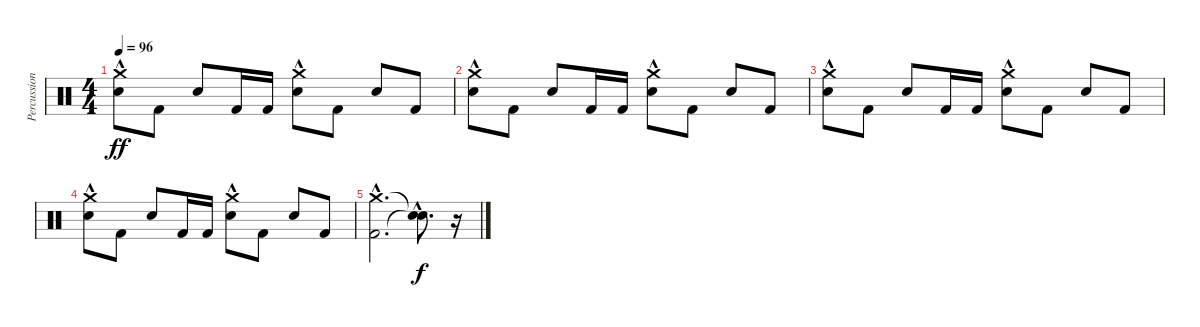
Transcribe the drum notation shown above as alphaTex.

\track ("Percussion 1" "Percussion") {instrument percussion}
\staff {score}
\articulation defaults
\ts (4 4)
\tempo 96
\clef neutral
\ks c
("Electric Snare (hit)" "Crash medium (hit)"{hac}).8{dy ff} "Kick (hit) 2".8 "Electric Snare (hit)".8 "Kick (hit) 2".16 "Kick (hit) 2".16 ("Electric Snare (hit)" "Crash medium (hit)"{hac}).8 "Kick (hit) 2".8 "Electric Snare (hit)".8 "Kick (hit) 2".8 |
("Electric Snare (hit)" "Crash medium (hit)"{hac}).8 "Kick (hit) 2".8 "Electric Snare (hit)".8 "Kick (hit) 2".16 "Kick (hit) 2".16 ("Electric Snare (hit)" "Crash medium (hit)"{hac}).8 "Kick (hit) 2".8 "Electric Snare (hit)".8 "Kick (hit) 2".8 |
("Electric Snare (hit)" "Crash medium (hit)"{hac}).8 "Kick (hit) 2".8 "Electric Snare (hit)".8 "Kick (hit) 2".16 "Kick (hit) 2".16 ("Electric Snare (hit)" "Crash medium (hit)"{hac}).8 "Kick (hit) 2".8 "Electric Snare (hit)".8 "Kick (hit) 2".8 |
("Electric Snare (hit)" "Crash medium (hit)"{hac}).8 "Kick (hit) 2".8 "Electric Snare (hit)".8 "Kick (hit) 2".16 "Kick (hit) 2".16 ("Electric Snare (hit)" "Crash medium (hit)"{hac}).8 "Kick (hit) 2".8 "Electric Snare (hit)".8 "Kick (hit) 2".8 |
("Kick (hit) 2"{hac} "Crash medium (hit)"{hac}).2{d} ("Snare (hit)"{hac t} "Snare (hit)"{hac t}).8{d dy f} r.16
